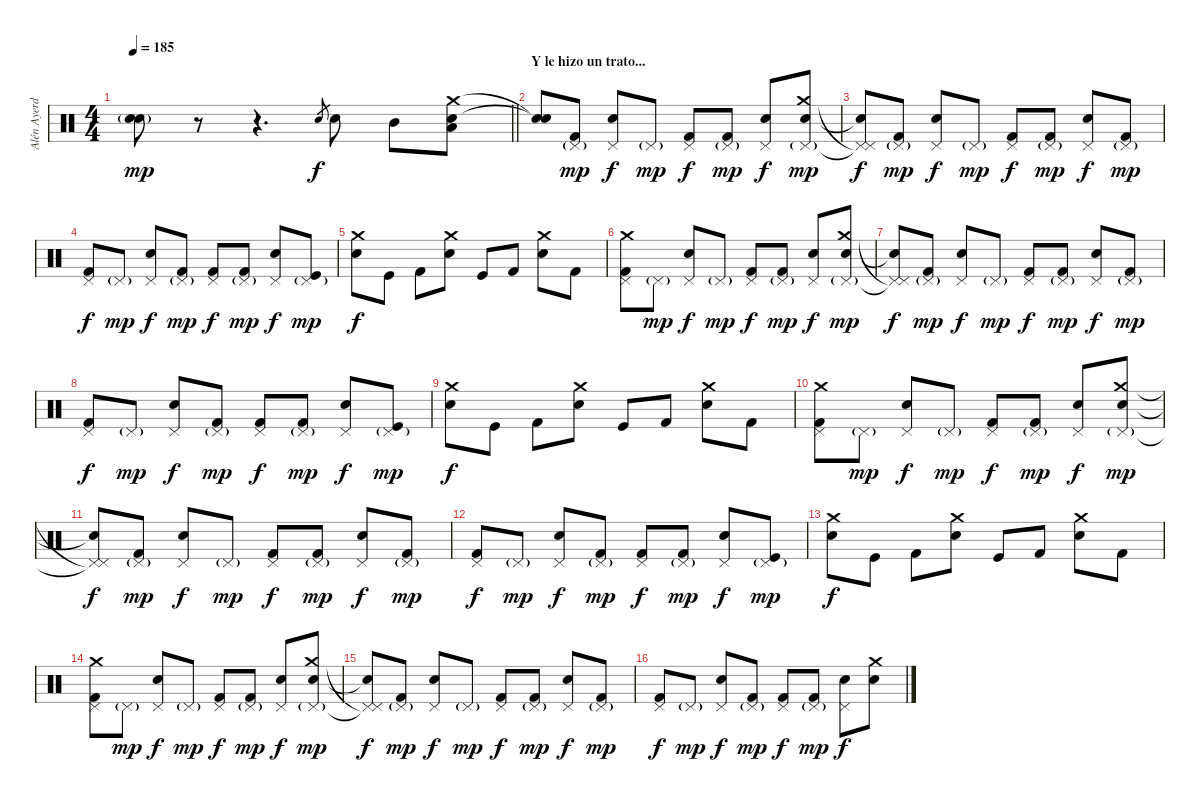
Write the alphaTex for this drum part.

\track ("Alén Ayerdi - Batería" "Alén Ayerd") {instrument percussion}
\staff {score}
\articulation defaults
\ts (4 4)
\tempo 185
\clef neutral
\barLineRight lightlight
\ks c
("Snare (hit) 2"{g} "Electric Snare (hit)").8{dy mp} r.8 r.4{d} "Snare (hit) 2".8{gr dy f} "Electric Snare (hit)".8 "Mid Tom (hit)".8 ("Crash medium (hit)" "Snare (hit) 2" "Low Tom (hit)").8 |
\section ("" "Y le hizo un trato...")
("Snare (hit)"{t} "Snare (hit)"{t}).8 ("Pedal Hi-Hat (hit)"{g} "Kick (hit) 2").8{dy mp} ("Pedal Hi-Hat (hit)" "Electric Snare (hit)").8{dy f} "Pedal Hi-Hat (hit)"{g}.8{dy mp} ("Pedal Hi-Hat (hit)" "Kick (hit) 2").8{dy f} ("Pedal Hi-Hat (hit)"{g} "Kick (hit) 2").8{dy mp} ("Pedal Hi-Hat (hit)" "Electric Snare (hit)").8{dy f} ("Crash medium (hit)" "Pedal Hi-Hat (hit)"{g} "Electric Snare (hit)").8{dy mp} |
("Pedal Hi-Hat (hit)"{t} "Pedal Hi-Hat (hit)"{t} "Snare (hit)"{t}).8{dy f} ("Pedal Hi-Hat (hit)"{g} "Kick (hit) 2").8{dy mp} ("Pedal Hi-Hat (hit)" "Electric Snare (hit)").8{dy f} "Pedal Hi-Hat (hit)"{g}.8{dy mp} ("Pedal Hi-Hat (hit)" "Kick (hit) 2").8{dy f} ("Pedal Hi-Hat (hit)"{g} "Kick (hit) 2").8{dy mp} ("Pedal Hi-Hat (hit)" "Electric Snare (hit)").8{dy f} ("Pedal Hi-Hat (hit)"{g} "Kick (hit) 2").8{dy mp} |
("Pedal Hi-Hat (hit)" "Kick (hit) 2").8{dy f} "Pedal Hi-Hat (hit)"{g}.8{dy mp} ("Pedal Hi-Hat (hit)" "Electric Snare (hit)").8{dy f} ("Pedal Hi-Hat (hit)"{g} "Kick (hit) 2").8{dy mp} ("Pedal Hi-Hat (hit)" "Kick (hit) 2").8{dy f} ("Pedal Hi-Hat (hit)"{g} "Kick (hit) 2").8{dy mp} ("Pedal Hi-Hat (hit)" "Electric Snare (hit)").8{dy f} ("Pedal Hi-Hat (hit)"{g} "Kick (hit)").8{dy mp} |
("Crash medium (hit)" "Electric Snare (hit)").8{dy f} "Kick (hit)".8 "Kick (hit) 2".8 ("Crash medium (hit)" "Electric Snare (hit)").8 "Kick (hit)".8 "Kick (hit) 2".8 ("Crash medium (hit)" "Electric Snare (hit)").8 "Kick (hit) 2".8 |
("Crash medium (hit)" "Pedal Hi-Hat (hit)" "Kick (hit) 2").8 "Pedal Hi-Hat (hit)"{g}.8{dy mp} ("Pedal Hi-Hat (hit)" "Electric Snare (hit)").8{dy f} "Pedal Hi-Hat (hit)"{g}.8{dy mp} ("Pedal Hi-Hat (hit)" "Kick (hit) 2").8{dy f} ("Pedal Hi-Hat (hit)"{g} "Kick (hit) 2").8{dy mp} ("Pedal Hi-Hat (hit)" "Electric Snare (hit)").8{dy f} ("Crash medium (hit)" "Pedal Hi-Hat (hit)"{g} "Electric Snare (hit)").8{dy mp} |
("Pedal Hi-Hat (hit)"{t} "Pedal Hi-Hat (hit)"{t} "Snare (hit)"{t}).8{dy f} ("Pedal Hi-Hat (hit)"{g} "Kick (hit) 2").8{dy mp} ("Pedal Hi-Hat (hit)" "Electric Snare (hit)").8{dy f} "Pedal Hi-Hat (hit)"{g}.8{dy mp} ("Pedal Hi-Hat (hit)" "Kick (hit) 2").8{dy f} ("Pedal Hi-Hat (hit)"{g} "Kick (hit) 2").8{dy mp} ("Pedal Hi-Hat (hit)" "Electric Snare (hit)").8{dy f} ("Pedal Hi-Hat (hit)"{g} "Kick (hit) 2").8{dy mp} |
("Pedal Hi-Hat (hit)" "Kick (hit) 2").8{dy f} "Pedal Hi-Hat (hit)"{g}.8{dy mp} ("Pedal Hi-Hat (hit)" "Electric Snare (hit)").8{dy f} ("Pedal Hi-Hat (hit)"{g} "Kick (hit) 2").8{dy mp} ("Pedal Hi-Hat (hit)" "Kick (hit) 2").8{dy f} ("Pedal Hi-Hat (hit)"{g} "Kick (hit) 2").8{dy mp} ("Pedal Hi-Hat (hit)" "Electric Snare (hit)").8{dy f} ("Pedal Hi-Hat (hit)"{g} "Kick (hit)").8{dy mp} |
("Crash medium (hit)" "Electric Snare (hit)").8{dy f} "Kick (hit)".8 "Kick (hit) 2".8 ("Crash medium (hit)" "Electric Snare (hit)").8 "Kick (hit)".8 "Kick (hit) 2".8 ("Crash medium (hit)" "Electric Snare (hit)").8 "Kick (hit) 2".8 |
("Crash medium (hit)" "Pedal Hi-Hat (hit)" "Kick (hit) 2").8 "Pedal Hi-Hat (hit)"{g}.8{dy mp} ("Pedal Hi-Hat (hit)" "Electric Snare (hit)").8{dy f} "Pedal Hi-Hat (hit)"{g}.8{dy mp} ("Pedal Hi-Hat (hit)" "Kick (hit) 2").8{dy f} ("Pedal Hi-Hat (hit)"{g} "Kick (hit) 2").8{dy mp} ("Pedal Hi-Hat (hit)" "Electric Snare (hit)").8{dy f} ("Crash medium (hit)" "Pedal Hi-Hat (hit)"{g} "Electric Snare (hit)").8{dy mp} |
("Pedal Hi-Hat (hit)"{t} "Pedal Hi-Hat (hit)"{t} "Snare (hit)"{t}).8{dy f} ("Pedal Hi-Hat (hit)"{g} "Kick (hit) 2").8{dy mp} ("Pedal Hi-Hat (hit)" "Electric Snare (hit)").8{dy f} "Pedal Hi-Hat (hit)"{g}.8{dy mp} ("Pedal Hi-Hat (hit)" "Kick (hit) 2").8{dy f} ("Pedal Hi-Hat (hit)"{g} "Kick (hit) 2").8{dy mp} ("Pedal Hi-Hat (hit)" "Electric Snare (hit)").8{dy f} ("Pedal Hi-Hat (hit)"{g} "Kick (hit) 2").8{dy mp} |
("Pedal Hi-Hat (hit)" "Kick (hit) 2").8{dy f} "Pedal Hi-Hat (hit)"{g}.8{dy mp} ("Pedal Hi-Hat (hit)" "Electric Snare (hit)").8{dy f} ("Pedal Hi-Hat (hit)"{g} "Kick (hit) 2").8{dy mp} ("Pedal Hi-Hat (hit)" "Kick (hit) 2").8{dy f} ("Pedal Hi-Hat (hit)"{g} "Kick (hit) 2").8{dy mp} ("Pedal Hi-Hat (hit)" "Electric Snare (hit)").8{dy f} ("Pedal Hi-Hat (hit)"{g} "Kick (hit)").8{dy mp} |
("Crash medium (hit)" "Electric Snare (hit)").8{dy f} "Kick (hit)".8 "Kick (hit) 2".8 ("Crash medium (hit)" "Electric Snare (hit)").8 "Kick (hit)".8 "Kick (hit) 2".8 ("Crash medium (hit)" "Electric Snare (hit)").8 "Kick (hit) 2".8 |
("Crash medium (hit)" "Pedal Hi-Hat (hit)" "Kick (hit) 2").8 "Pedal Hi-Hat (hit)"{g}.8{dy mp} ("Pedal Hi-Hat (hit)" "Electric Snare (hit)").8{dy f} "Pedal Hi-Hat (hit)"{g}.8{dy mp} ("Pedal Hi-Hat (hit)" "Kick (hit) 2").8{dy f} ("Pedal Hi-Hat (hit)"{g} "Kick (hit) 2").8{dy mp} ("Pedal Hi-Hat (hit)" "Electric Snare (hit)").8{dy f} ("Crash medium (hit)" "Pedal Hi-Hat (hit)"{g} "Electric Snare (hit)").8{dy mp} |
("Pedal Hi-Hat (hit)"{t} "Pedal Hi-Hat (hit)"{t} "Snare (hit)"{t}).8{dy f} ("Pedal Hi-Hat (hit)"{g} "Kick (hit) 2").8{dy mp} ("Pedal Hi-Hat (hit)" "Electric Snare (hit)").8{dy f} "Pedal Hi-Hat (hit)"{g}.8{dy mp} ("Pedal Hi-Hat (hit)" "Kick (hit) 2").8{dy f} ("Pedal Hi-Hat (hit)"{g} "Kick (hit) 2").8{dy mp} ("Pedal Hi-Hat (hit)" "Electric Snare (hit)").8{dy f} ("Pedal Hi-Hat (hit)"{g} "Kick (hit) 2").8{dy mp} |
("Pedal Hi-Hat (hit)" "Kick (hit) 2").8{dy f} "Pedal Hi-Hat (hit)"{g}.8{dy mp} ("Pedal Hi-Hat (hit)" "Electric Snare (hit)").8{dy f} ("Pedal Hi-Hat (hit)"{g} "Kick (hit) 2").8{dy mp} ("Pedal Hi-Hat (hit)" "Kick (hit) 2").8{dy f} ("Pedal Hi-Hat (hit)"{g} "Kick (hit) 2").8{dy mp} ("Pedal Hi-Hat (hit)" "Electric Snare (hit)").8{dy f} ("Crash medium (hit)" "Electric Snare (hit)").8
